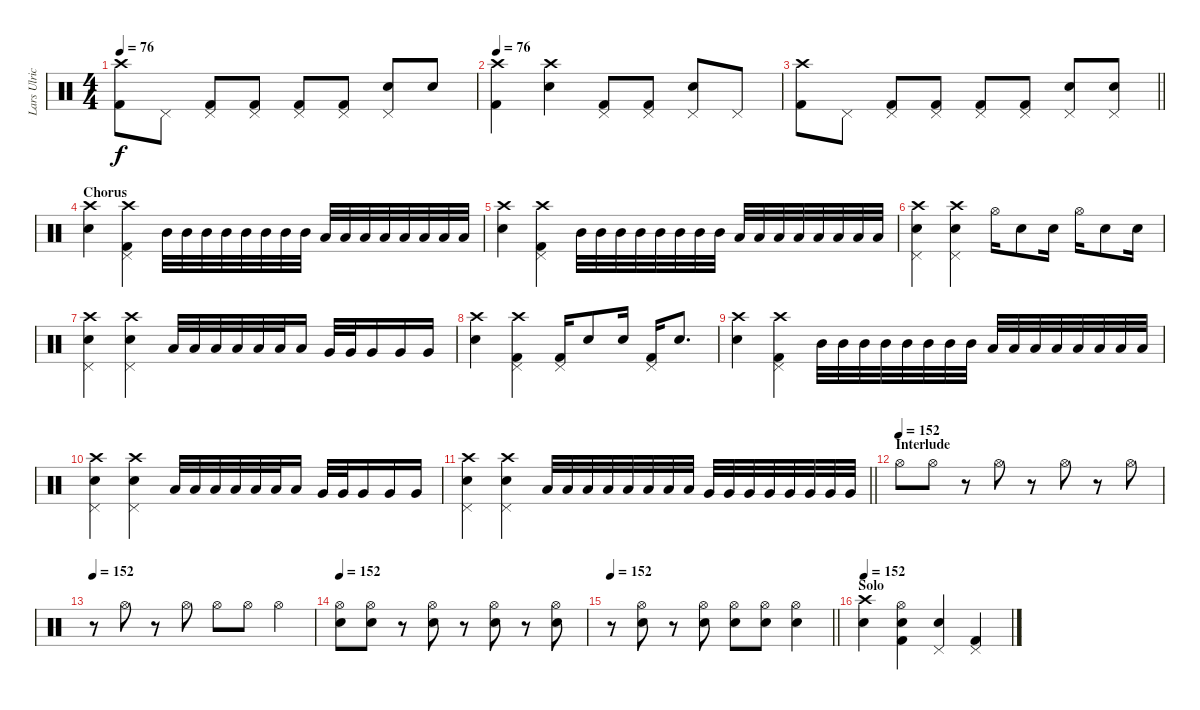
\track ("Lars Ulrich" "Lars Ulric") {instrument percussion}
\staff {score}
\articulation defaults
\ts (4 4)
\tempo 76
\clef neutral
\ks c
("Crash high (hit)" "Kick (hit) 2").8{dy f} "Pedal Hi-Hat (hit)".8 ("Pedal Hi-Hat (hit)" "Kick (hit) 2").8 ("Pedal Hi-Hat (hit)" "Kick (hit) 2").8 ("Pedal Hi-Hat (hit)" "Kick (hit) 2").8 ("Pedal Hi-Hat (hit)" "Kick (hit) 2").8 ("Pedal Hi-Hat (hit)" "Snare (hit) 2").8 "Snare (hit) 2".8 |
\tempo 76
("Crash high (hit)" "Kick (hit) 2").4 ("Crash high (hit)" "Snare (hit) 2").4 ("Pedal Hi-Hat (hit)" "Kick (hit) 2").8 ("Pedal Hi-Hat (hit)" "Kick (hit) 2").8 ("Pedal Hi-Hat (hit)" "Snare (hit) 2").8 "Pedal Hi-Hat (hit)".8 |
\barLineRight lightlight
("Crash high (hit)" "Kick (hit) 2").8 "Pedal Hi-Hat (hit)".8 ("Pedal Hi-Hat (hit)" "Kick (hit) 2").8 ("Pedal Hi-Hat (hit)" "Kick (hit) 2").8 ("Pedal Hi-Hat (hit)" "Kick (hit) 2").8 ("Pedal Hi-Hat (hit)" "Kick (hit) 2").8 ("Pedal Hi-Hat (hit)" "Snare (hit) 2").8 ("Pedal Hi-Hat (hit)" "Snare (hit) 2").8 |
\section ("" "Chorus")
("Crash high (hit)" "Snare (hit) 2").4 ("Pedal Hi-Hat (hit)" "Crash high (hit)" "Kick (hit) 2").4 "Mid Tom (hit)".32 "Mid Tom (hit)".32 "Mid Tom (hit)".32 "Mid Tom (hit)".32 "Mid Tom (hit)".32 "Mid Tom (hit)".32 "Mid Tom (hit)".32 "Mid Tom (hit)".32 "Low Tom (hit)".32 "Low Tom (hit)".32 "Low Tom (hit)".32 "Low Tom (hit)".32 "Low Tom (hit)".32 "Low Tom (hit)".32 "Low Tom (hit)".32 "Low Tom (hit)".32 |
("Crash high (hit)" "Snare (hit) 2").4 ("Pedal Hi-Hat (hit)" "Crash high (hit)" "Kick (hit) 2").4 "Mid Tom (hit)".32 "Mid Tom (hit)".32 "Mid Tom (hit)".32 "Mid Tom (hit)".32 "Mid Tom (hit)".32 "Mid Tom (hit)".32 "Mid Tom (hit)".32 "Mid Tom (hit)".32 "Low Tom (hit)".32 "Low Tom (hit)".32 "Low Tom (hit)".32 "Low Tom (hit)".32 "Low Tom (hit)".32 "Low Tom (hit)".32 "Low Tom (hit)".32 "Low Tom (hit)".32 |
("Pedal Hi-Hat (hit)" "Crash high (hit)" "Snare (hit) 2").4 ("Pedal Hi-Hat (hit)" "Crash high (hit)" "Snare (hit) 2").4 "Hi-Hat (open)".16 "Snare (hit) 2".8 "Snare (hit) 2".16 "Hi-Hat (open)".16 "Snare (hit) 2".8 "Snare (hit) 2".16 |
("Pedal Hi-Hat (hit)" "Crash high (hit)" "Snare (hit) 2").4 ("Pedal Hi-Hat (hit)" "Crash high (hit)" "Snare (hit) 2").4 "Low Tom (hit)".32 "Low Tom (hit)".32 "Low Tom (hit)".32 "Low Tom (hit)".32 "Low Tom (hit)".32 "Low Tom (hit)".32 "Low Tom (hit)".16 "Very Low Tom (hit)".32 "Very Low Tom (hit)".32 "Very Low Tom (hit)".16 "Very Low Tom (hit)".16 "Very Low Tom (hit)".16 |
("Crash high (hit)" "Snare (hit) 2").4 ("Pedal Hi-Hat (hit)" "Crash high (hit)" "Kick (hit) 2").4 ("Pedal Hi-Hat (hit)" "Kick (hit) 2").16 "Snare (hit) 2".8 "Snare (hit) 2".16 ("Pedal Hi-Hat (hit)" "Kick (hit) 2").16 "Snare (hit) 2".8{d} |
("Crash high (hit)" "Snare (hit) 2").4 ("Pedal Hi-Hat (hit)" "Crash high (hit)" "Kick (hit) 2").4 "Mid Tom (hit)".32 "Mid Tom (hit)".32 "Mid Tom (hit)".32 "Mid Tom (hit)".32 "Mid Tom (hit)".32 "Mid Tom (hit)".32 "Mid Tom (hit)".32 "Mid Tom (hit)".32 "Low Tom (hit)".32 "Low Tom (hit)".32 "Low Tom (hit)".32 "Low Tom (hit)".32 "Low Tom (hit)".32 "Low Tom (hit)".32 "Low Tom (hit)".32 "Low Tom (hit)".32 |
("Pedal Hi-Hat (hit)" "Crash high (hit)" "Snare (hit) 2").4 ("Pedal Hi-Hat (hit)" "Crash high (hit)" "Snare (hit) 2").4 "Low Tom (hit)".32 "Low Tom (hit)".32 "Low Tom (hit)".32 "Low Tom (hit)".32 "Low Tom (hit)".32 "Low Tom (hit)".32 "Low Tom (hit)".16 "Very Low Tom (hit)".32 "Very Low Tom (hit)".32 "Very Low Tom (hit)".16 "Very Low Tom (hit)".16 "Very Low Tom (hit)".16 |
\barLineRight lightlight
("Pedal Hi-Hat (hit)" "Crash high (hit)" "Snare (hit) 2").4 ("Pedal Hi-Hat (hit)" "Crash high (hit)" "Snare (hit) 2").4 "Low Tom (hit)".32 "Low Tom (hit)".32 "Low Tom (hit)".32 "Low Tom (hit)".32 "Low Tom (hit)".32 "Low Tom (hit)".32 "Low Tom (hit)".32 "Low Tom (hit)".32 "Very Low Tom (hit)".32 "Very Low Tom (hit)".32 "Very Low Tom (hit)".32 "Very Low Tom (hit)".32 "Very Low Tom (hit)".32 "Very Low Tom (hit)".32 "Very Low Tom (hit)".32 "Very Low Tom (hit)".32 |
\section ("" "Interlude")
\tempo (152)
"Hi-Hat (open)".8 "Hi-Hat (open)".8 r.8 "Hi-Hat (open)".8 r.8 "Hi-Hat (open)".8 r.8 "Hi-Hat (open)".8 |
\tempo 152
r.8 "Hi-Hat (open)".8 r.8 "Hi-Hat (open)".8 "Hi-Hat (open)".8 "Hi-Hat (open)".8 "Hi-Hat (open)".4 |
\tempo 152
("Snare (hit) 2" "Hi-Hat (open)").8 ("Snare (hit) 2" "Hi-Hat (open)").8 r.8 ("Snare (hit) 2" "Hi-Hat (open)").8 r.8 ("Snare (hit) 2" "Hi-Hat (open)").8 r.8 ("Snare (hit) 2" "Hi-Hat (open)").8 |
\tempo 152
\barLineRight lightlight
r.8 ("Snare (hit) 2" "Hi-Hat (open)").8 r.8 ("Snare (hit) 2" "Hi-Hat (open)").8 ("Snare (hit) 2" "Hi-Hat (open)").8 ("Snare (hit) 2" "Hi-Hat (open)").8 ("Snare (hit) 2" "Hi-Hat (open)").4 |
\section ("" "Solo")
\tempo 152
("Crash high (hit)" "Snare (hit) 2").4 ("Hi-Hat (open)" "Snare (hit) 2" "Kick (hit) 2").4 ("Pedal Hi-Hat (hit)" "Snare (hit) 2").4 ("Pedal Hi-Hat (hit)" "Kick (hit) 2").4
